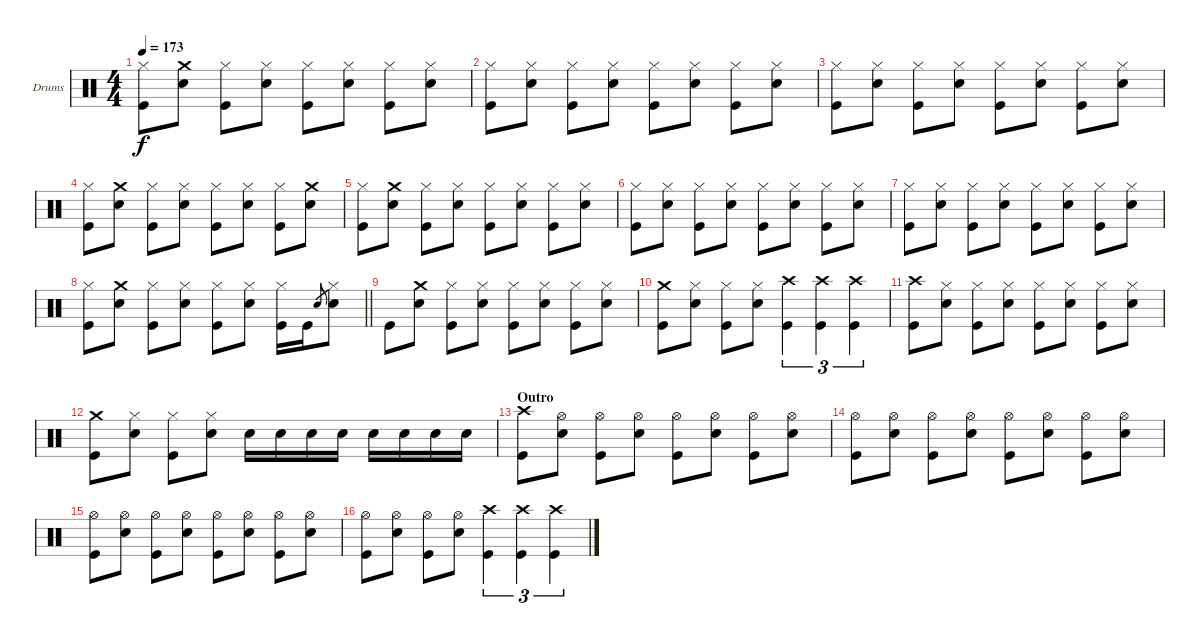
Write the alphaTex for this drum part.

\bracketExtendMode groupsimilarinstruments
\firstSystemTrackNameOrientation horizontal
\otherSystemsTrackNameOrientation horizontal
\track ("Drums" "Drums") {instrument percussion}
\staff {score}
\articulation defaults
\ts (4 4)
\tempo 173
\clef neutral
\ks c
("Kick (hit)" "Hi-Hat (closed)").8{dy f} ("Snare (hit) 2" "Crash medium (hit)").8 ("Hi-Hat (closed)" "Kick (hit)").8 ("Hi-Hat (closed)" "Snare (hit) 2").8 ("Hi-Hat (closed)" "Kick (hit)").8 ("Hi-Hat (closed)" "Snare (hit) 2").8 ("Hi-Hat (closed)" "Kick (hit)").8 ("Hi-Hat (closed)" "Snare (hit) 2").8 |
("Hi-Hat (closed)" "Kick (hit)").8 ("Hi-Hat (closed)" "Snare (hit) 2").8 ("Hi-Hat (closed)" "Kick (hit)").8 ("Hi-Hat (closed)" "Snare (hit) 2").8 ("Hi-Hat (closed)" "Kick (hit)").8 ("Hi-Hat (closed)" "Snare (hit) 2").8 ("Hi-Hat (closed)" "Kick (hit)").8 ("Hi-Hat (closed)" "Snare (hit) 2").8 |
("Hi-Hat (closed)" "Kick (hit)").8 ("Hi-Hat (closed)" "Snare (hit) 2").8 ("Hi-Hat (closed)" "Kick (hit)").8 ("Hi-Hat (closed)" "Snare (hit) 2").8 ("Hi-Hat (closed)" "Kick (hit)").8 ("Hi-Hat (closed)" "Snare (hit) 2").8 ("Hi-Hat (closed)" "Kick (hit)").8 ("Hi-Hat (closed)" "Snare (hit) 2").8 |
("Hi-Hat (closed)" "Kick (hit)").8 ("Snare (hit) 2" "Crash medium (hit)").8 ("Hi-Hat (closed)" "Kick (hit)").8 ("Hi-Hat (closed)" "Snare (hit) 2").8 ("Hi-Hat (closed)" "Kick (hit)").8 ("Hi-Hat (closed)" "Snare (hit) 2").8 ("Hi-Hat (closed)" "Kick (hit)").8 ("Snare (hit) 2" "Crash medium (hit)").8 |
("Kick (hit)" "Hi-Hat (closed)").8 ("Snare (hit) 2" "Crash medium (hit)").8 ("Hi-Hat (closed)" "Kick (hit)").8 ("Hi-Hat (closed)" "Snare (hit) 2").8 ("Hi-Hat (closed)" "Kick (hit)").8 ("Hi-Hat (closed)" "Snare (hit) 2").8 ("Hi-Hat (closed)" "Kick (hit)").8 ("Hi-Hat (closed)" "Snare (hit) 2").8 |
("Hi-Hat (closed)" "Kick (hit)").8 ("Hi-Hat (closed)" "Snare (hit) 2").8 ("Hi-Hat (closed)" "Kick (hit)").8 ("Hi-Hat (closed)" "Snare (hit) 2").8 ("Hi-Hat (closed)" "Kick (hit)").8 ("Hi-Hat (closed)" "Snare (hit) 2").8 ("Hi-Hat (closed)" "Kick (hit)").8 ("Hi-Hat (closed)" "Snare (hit) 2").8 |
("Hi-Hat (closed)" "Kick (hit)").8 ("Hi-Hat (closed)" "Snare (hit) 2").8 ("Hi-Hat (closed)" "Kick (hit)").8 ("Hi-Hat (closed)" "Snare (hit) 2").8 ("Hi-Hat (closed)" "Kick (hit)").8 ("Hi-Hat (closed)" "Snare (hit) 2").8 ("Hi-Hat (closed)" "Kick (hit)").8 ("Hi-Hat (closed)" "Snare (hit) 2").8 |
\barLineRight lightlight
("Hi-Hat (closed)" "Kick (hit)").8 ("Snare (hit) 2" "Crash medium (hit)").8 ("Hi-Hat (closed)" "Kick (hit)").8 ("Hi-Hat (closed)" "Snare (hit) 2").8 ("Hi-Hat (closed)" "Kick (hit)").8 ("Hi-Hat (closed)" "Snare (hit) 2").8 ("Hi-Hat (closed)" "Kick (hit)").16 "Kick (hit)".16 "Snare (hit) 2".8{gr} ("Hi-Hat (closed)" "Snare (hit) 2").8 |
"Kick (hit)".8 ("Snare (hit) 2" "Crash medium (hit)").8 ("Hi-Hat (closed)" "Kick (hit)").8 ("Hi-Hat (closed)" "Snare (hit) 2").8 ("Hi-Hat (closed)" "Kick (hit)").8 ("Hi-Hat (closed)" "Snare (hit) 2").8 ("Hi-Hat (closed)" "Kick (hit)").8 ("Hi-Hat (closed)" "Snare (hit) 2").8 |
("Kick (hit)" "Crash medium (hit)").8 ("Hi-Hat (closed)" "Snare (hit) 2").8 ("Hi-Hat (closed)" "Kick (hit)").8 ("Hi-Hat (closed)" "Snare (hit) 2").8 ("Crash high (hit)" "Kick (hit)").4{tu (3 2)} ("Crash high (hit)" "Kick (hit)").4{tu (3 2)} ("Crash high (hit)" "Kick (hit)").4{tu (3 2)} |
("Crash high (hit)" "Kick (hit)").8 ("Hi-Hat (closed)" "Snare (hit) 2").8 ("Hi-Hat (closed)" "Kick (hit)").8 ("Hi-Hat (closed)" "Snare (hit) 2").8 ("Hi-Hat (closed)" "Kick (hit)").8 ("Hi-Hat (closed)" "Snare (hit) 2").8 ("Hi-Hat (closed)" "Kick (hit)").8 ("Hi-Hat (closed)" "Snare (hit) 2").8 |
("Kick (hit)" "Crash medium (hit)").8 ("Hi-Hat (closed)" "Snare (hit) 2").8 ("Hi-Hat (closed)" "Kick (hit)").8 ("Hi-Hat (closed)" "Snare (hit) 2").8 "Snare (hit) 2".16 "Snare (hit) 2".16 "Snare (hit) 2".16 "Snare (hit) 2".16 "Snare (hit) 2".16 "Snare (hit) 2".16 "Snare (hit) 2".16 "Snare (hit) 2".16 |
\section ("" "Outro")
("Crash high (hit)" "Kick (hit)").8 ("Snare (hit) 2" "Hi-Hat (open)").8 ("Kick (hit)" "Hi-Hat (open)").8 ("Snare (hit) 2" "Hi-Hat (open)").8 ("Kick (hit)" "Hi-Hat (open)").8 ("Hi-Hat (open)" "Snare (hit) 2").8 ("Hi-Hat (open)" "Kick (hit)").8 ("Hi-Hat (open)" "Snare (hit) 2").8 |
("Hi-Hat (open)" "Kick (hit)").8 ("Hi-Hat (open)" "Snare (hit) 2").8 ("Hi-Hat (open)" "Kick (hit)").8 ("Hi-Hat (open)" "Snare (hit) 2").8 ("Hi-Hat (open)" "Kick (hit)").8 ("Hi-Hat (open)" "Snare (hit) 2").8 ("Hi-Hat (open)" "Kick (hit)").8 ("Hi-Hat (open)" "Snare (hit) 2").8 |
("Hi-Hat (open)" "Kick (hit)").8 ("Hi-Hat (open)" "Snare (hit) 2").8 ("Hi-Hat (open)" "Kick (hit)").8 ("Hi-Hat (open)" "Snare (hit) 2").8 ("Hi-Hat (open)" "Kick (hit)").8 ("Hi-Hat (open)" "Snare (hit) 2").8 ("Hi-Hat (open)" "Kick (hit)").8 ("Hi-Hat (open)" "Snare (hit) 2").8 |
("Hi-Hat (open)" "Kick (hit)").8 ("Hi-Hat (open)" "Snare (hit) 2").8 ("Hi-Hat (open)" "Kick (hit)").8 ("Hi-Hat (open)" "Snare (hit) 2").8 ("Crash high (hit)" "Kick (hit)").4{tu (3 2)} ("Crash high (hit)" "Kick (hit)").4{tu (3 2)} ("Crash high (hit)" "Kick (hit)").4{tu (3 2)}
